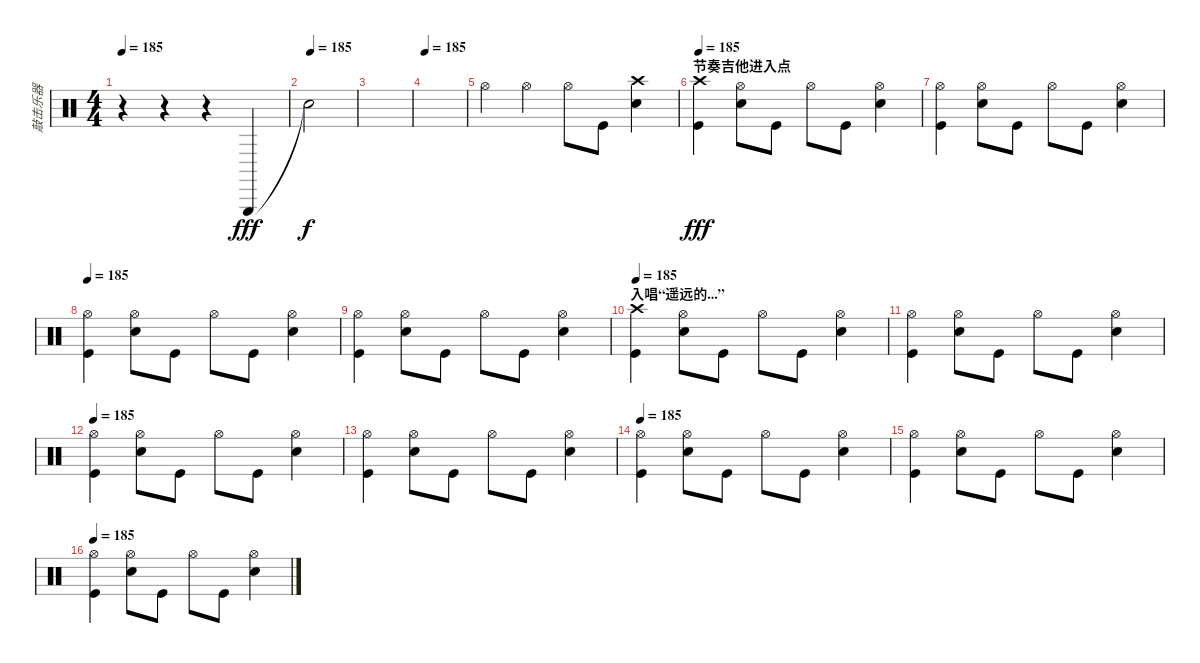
\track ("敲击乐器" "敲击乐器") {instrument percussion}
\staff {score}
\articulation defaults
\ts (4 4)
\tempo 185
\clef neutral
\ks c
r.4{dy fff} r.4 r.4 "Triangle (hit)".4 |
\tempo (185 0.0625)
"Snare (hit)"{t}.2{dy f} |
|
\tempo 185
|
"Hi-Hat (open)".4 "Hi-Hat (open)".4 "Hi-Hat (open)".8 "Kick (hit)".8 ("Crash high (hit)" "Snare (hit) 2").4 |
\section ("" "节奏吉他进入点")
\tempo 185
("Crash high (hit)" "Kick (hit)").4{dy fff} ("Hi-Hat (open)" "Snare (hit) 2").8 "Kick (hit)".8 "Hi-Hat (open)".8 "Kick (hit)".8 ("Hi-Hat (open)" "Snare (hit) 2").4 |
("Hi-Hat (open)" "Kick (hit)").4 ("Hi-Hat (open)" "Snare (hit) 2").8 "Kick (hit)".8 "Hi-Hat (open)".8 "Kick (hit)".8 ("Hi-Hat (open)" "Snare (hit) 2").4 |
\tempo 185
("Hi-Hat (open)" "Kick (hit)").4 ("Hi-Hat (open)" "Snare (hit) 2").8 "Kick (hit)".8 "Hi-Hat (open)".8 "Kick (hit)".8 ("Hi-Hat (open)" "Snare (hit) 2").4 |
("Hi-Hat (open)" "Kick (hit)").4 ("Hi-Hat (open)" "Snare (hit) 2").8 "Kick (hit)".8 "Hi-Hat (open)".8 "Kick (hit)".8 ("Hi-Hat (open)" "Snare (hit) 2").4 |
\section ("" "入唱“遥远的...”")
\tempo 185
("Crash high (hit)" "Kick (hit)").4 ("Hi-Hat (open)" "Snare (hit) 2").8 "Kick (hit)".8 "Hi-Hat (open)".8 "Kick (hit)".8 ("Hi-Hat (open)" "Snare (hit) 2").4 |
("Hi-Hat (open)" "Kick (hit)").4 ("Hi-Hat (open)" "Snare (hit) 2").8 "Kick (hit)".8 "Hi-Hat (open)".8 "Kick (hit)".8 ("Hi-Hat (open)" "Snare (hit) 2").4 |
\tempo 185
("Hi-Hat (open)" "Kick (hit)").4 ("Hi-Hat (open)" "Snare (hit) 2").8 "Kick (hit)".8 "Hi-Hat (open)".8 "Kick (hit)".8 ("Hi-Hat (open)" "Snare (hit) 2").4 |
("Hi-Hat (open)" "Kick (hit)").4 ("Hi-Hat (open)" "Snare (hit) 2").8 "Kick (hit)".8 "Hi-Hat (open)".8 "Kick (hit)".8 ("Hi-Hat (open)" "Snare (hit) 2").4 |
\tempo 185
("Hi-Hat (open)" "Kick (hit)").4 ("Hi-Hat (open)" "Snare (hit) 2").8 "Kick (hit)".8 "Hi-Hat (open)".8 "Kick (hit)".8 ("Hi-Hat (open)" "Snare (hit) 2").4 |
("Hi-Hat (open)" "Kick (hit)").4 ("Hi-Hat (open)" "Snare (hit) 2").8 "Kick (hit)".8 "Hi-Hat (open)".8 "Kick (hit)".8 ("Hi-Hat (open)" "Snare (hit) 2").4 |
\tempo 185
("Hi-Hat (open)" "Kick (hit)").4 ("Hi-Hat (open)" "Snare (hit) 2").8 "Kick (hit)".8 "Hi-Hat (open)".8 "Kick (hit)".8 ("Hi-Hat (open)" "Snare (hit) 2").4
